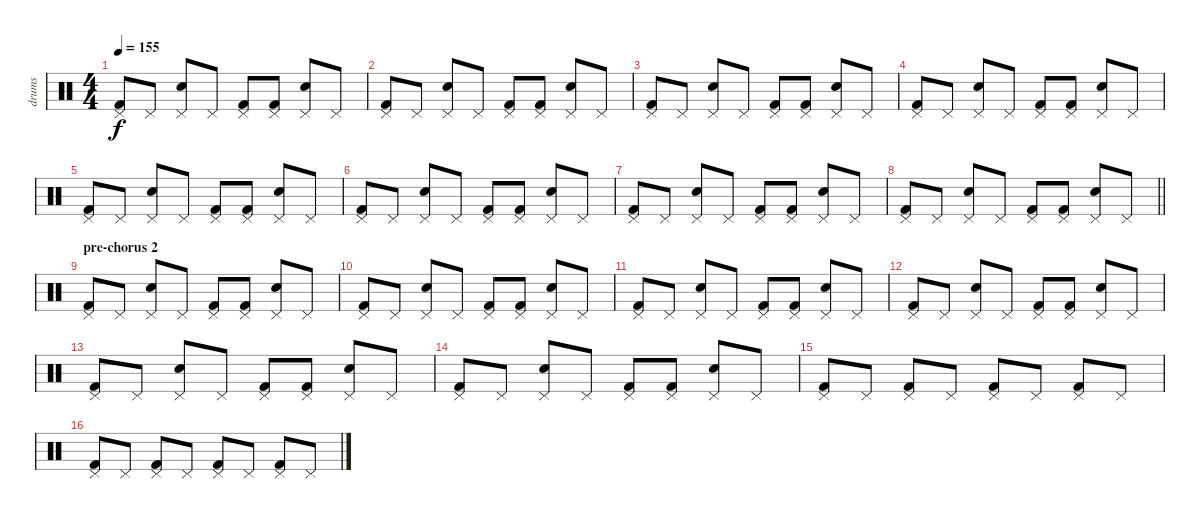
\track ("drums" "drums") {instrument percussion}
\staff {score}
\articulation defaults
\ts (4 4)
\tempo 155
\clef neutral
\ks c
("Kick (hit) 2" "Pedal Hi-Hat (hit)").8{dy f} "Pedal Hi-Hat (hit)".8 ("Electric Snare (hit)" "Pedal Hi-Hat (hit)").8 "Pedal Hi-Hat (hit)".8 ("Kick (hit) 2" "Pedal Hi-Hat (hit)").8 ("Kick (hit) 2" "Pedal Hi-Hat (hit)").8 ("Electric Snare (hit)" "Pedal Hi-Hat (hit)").8 "Pedal Hi-Hat (hit)".8 |
("Kick (hit) 2" "Pedal Hi-Hat (hit)").8 "Pedal Hi-Hat (hit)".8 ("Electric Snare (hit)" "Pedal Hi-Hat (hit)").8 "Pedal Hi-Hat (hit)".8 ("Kick (hit) 2" "Pedal Hi-Hat (hit)").8 ("Kick (hit) 2" "Pedal Hi-Hat (hit)").8 ("Electric Snare (hit)" "Pedal Hi-Hat (hit)").8 "Pedal Hi-Hat (hit)".8 |
("Kick (hit) 2" "Pedal Hi-Hat (hit)").8 "Pedal Hi-Hat (hit)".8 ("Electric Snare (hit)" "Pedal Hi-Hat (hit)").8 "Pedal Hi-Hat (hit)".8 ("Kick (hit) 2" "Pedal Hi-Hat (hit)").8 ("Kick (hit) 2" "Pedal Hi-Hat (hit)").8 ("Electric Snare (hit)" "Pedal Hi-Hat (hit)").8 "Pedal Hi-Hat (hit)".8 |
("Kick (hit) 2" "Pedal Hi-Hat (hit)").8 "Pedal Hi-Hat (hit)".8 ("Electric Snare (hit)" "Pedal Hi-Hat (hit)").8 "Pedal Hi-Hat (hit)".8 ("Kick (hit) 2" "Pedal Hi-Hat (hit)").8 ("Kick (hit) 2" "Pedal Hi-Hat (hit)").8 ("Electric Snare (hit)" "Pedal Hi-Hat (hit)").8 "Pedal Hi-Hat (hit)".8 |
("Kick (hit) 2" "Pedal Hi-Hat (hit)").8 "Pedal Hi-Hat (hit)".8 ("Electric Snare (hit)" "Pedal Hi-Hat (hit)").8 "Pedal Hi-Hat (hit)".8 ("Kick (hit) 2" "Pedal Hi-Hat (hit)").8 ("Kick (hit) 2" "Pedal Hi-Hat (hit)").8 ("Electric Snare (hit)" "Pedal Hi-Hat (hit)").8 "Pedal Hi-Hat (hit)".8 |
("Kick (hit) 2" "Pedal Hi-Hat (hit)").8 "Pedal Hi-Hat (hit)".8 ("Electric Snare (hit)" "Pedal Hi-Hat (hit)").8 "Pedal Hi-Hat (hit)".8 ("Kick (hit) 2" "Pedal Hi-Hat (hit)").8 ("Kick (hit) 2" "Pedal Hi-Hat (hit)").8 ("Electric Snare (hit)" "Pedal Hi-Hat (hit)").8 "Pedal Hi-Hat (hit)".8 |
("Kick (hit) 2" "Pedal Hi-Hat (hit)").8 "Pedal Hi-Hat (hit)".8 ("Electric Snare (hit)" "Pedal Hi-Hat (hit)").8 "Pedal Hi-Hat (hit)".8 ("Kick (hit) 2" "Pedal Hi-Hat (hit)").8 ("Kick (hit) 2" "Pedal Hi-Hat (hit)").8 ("Electric Snare (hit)" "Pedal Hi-Hat (hit)").8 "Pedal Hi-Hat (hit)".8 |
\barLineRight lightlight
("Kick (hit) 2" "Pedal Hi-Hat (hit)").8 "Pedal Hi-Hat (hit)".8 ("Electric Snare (hit)" "Pedal Hi-Hat (hit)").8 "Pedal Hi-Hat (hit)".8 ("Kick (hit) 2" "Pedal Hi-Hat (hit)").8 ("Kick (hit) 2" "Pedal Hi-Hat (hit)").8 ("Electric Snare (hit)" "Pedal Hi-Hat (hit)").8 "Pedal Hi-Hat (hit)".8 |
\section ("" "pre-chorus 2")
("Kick (hit) 2" "Pedal Hi-Hat (hit)").8 "Pedal Hi-Hat (hit)".8 ("Electric Snare (hit)" "Pedal Hi-Hat (hit)").8 "Pedal Hi-Hat (hit)".8 ("Kick (hit) 2" "Pedal Hi-Hat (hit)").8 ("Kick (hit) 2" "Pedal Hi-Hat (hit)").8 ("Electric Snare (hit)" "Pedal Hi-Hat (hit)").8 "Pedal Hi-Hat (hit)".8 |
("Kick (hit) 2" "Pedal Hi-Hat (hit)").8 "Pedal Hi-Hat (hit)".8 ("Electric Snare (hit)" "Pedal Hi-Hat (hit)").8 "Pedal Hi-Hat (hit)".8 ("Kick (hit) 2" "Pedal Hi-Hat (hit)").8 ("Kick (hit) 2" "Pedal Hi-Hat (hit)").8 ("Electric Snare (hit)" "Pedal Hi-Hat (hit)").8 "Pedal Hi-Hat (hit)".8 |
("Kick (hit) 2" "Pedal Hi-Hat (hit)").8 "Pedal Hi-Hat (hit)".8 ("Electric Snare (hit)" "Pedal Hi-Hat (hit)").8 "Pedal Hi-Hat (hit)".8 ("Kick (hit) 2" "Pedal Hi-Hat (hit)").8 ("Kick (hit) 2" "Pedal Hi-Hat (hit)").8 ("Electric Snare (hit)" "Pedal Hi-Hat (hit)").8 "Pedal Hi-Hat (hit)".8 |
("Kick (hit) 2" "Pedal Hi-Hat (hit)").8 "Pedal Hi-Hat (hit)".8 ("Electric Snare (hit)" "Pedal Hi-Hat (hit)").8 "Pedal Hi-Hat (hit)".8 ("Kick (hit) 2" "Pedal Hi-Hat (hit)").8 ("Kick (hit) 2" "Pedal Hi-Hat (hit)").8 ("Electric Snare (hit)" "Pedal Hi-Hat (hit)").8 "Pedal Hi-Hat (hit)".8 |
("Kick (hit) 2" "Pedal Hi-Hat (hit)").8 "Pedal Hi-Hat (hit)".8 ("Electric Snare (hit)" "Pedal Hi-Hat (hit)").8 "Pedal Hi-Hat (hit)".8 ("Kick (hit) 2" "Pedal Hi-Hat (hit)").8 ("Kick (hit) 2" "Pedal Hi-Hat (hit)").8 ("Electric Snare (hit)" "Pedal Hi-Hat (hit)").8 "Pedal Hi-Hat (hit)".8 |
("Kick (hit) 2" "Pedal Hi-Hat (hit)").8 "Pedal Hi-Hat (hit)".8 ("Electric Snare (hit)" "Pedal Hi-Hat (hit)").8 "Pedal Hi-Hat (hit)".8 ("Kick (hit) 2" "Pedal Hi-Hat (hit)").8 ("Kick (hit) 2" "Pedal Hi-Hat (hit)").8 ("Electric Snare (hit)" "Pedal Hi-Hat (hit)").8 "Pedal Hi-Hat (hit)".8 |
("Kick (hit) 2" "Pedal Hi-Hat (hit)").8 "Pedal Hi-Hat (hit)".8 ("Kick (hit) 2" "Pedal Hi-Hat (hit)").8 "Pedal Hi-Hat (hit)".8 ("Kick (hit) 2" "Pedal Hi-Hat (hit)").8 "Pedal Hi-Hat (hit)".8 ("Kick (hit) 2" "Pedal Hi-Hat (hit)").8 "Pedal Hi-Hat (hit)".8 |
("Kick (hit) 2" "Pedal Hi-Hat (hit)").8 "Pedal Hi-Hat (hit)".8 ("Kick (hit) 2" "Pedal Hi-Hat (hit)").8 "Pedal Hi-Hat (hit)".8 ("Kick (hit) 2" "Pedal Hi-Hat (hit)").8 "Pedal Hi-Hat (hit)".8 ("Kick (hit) 2" "Pedal Hi-Hat (hit)").8 "Pedal Hi-Hat (hit)".8
